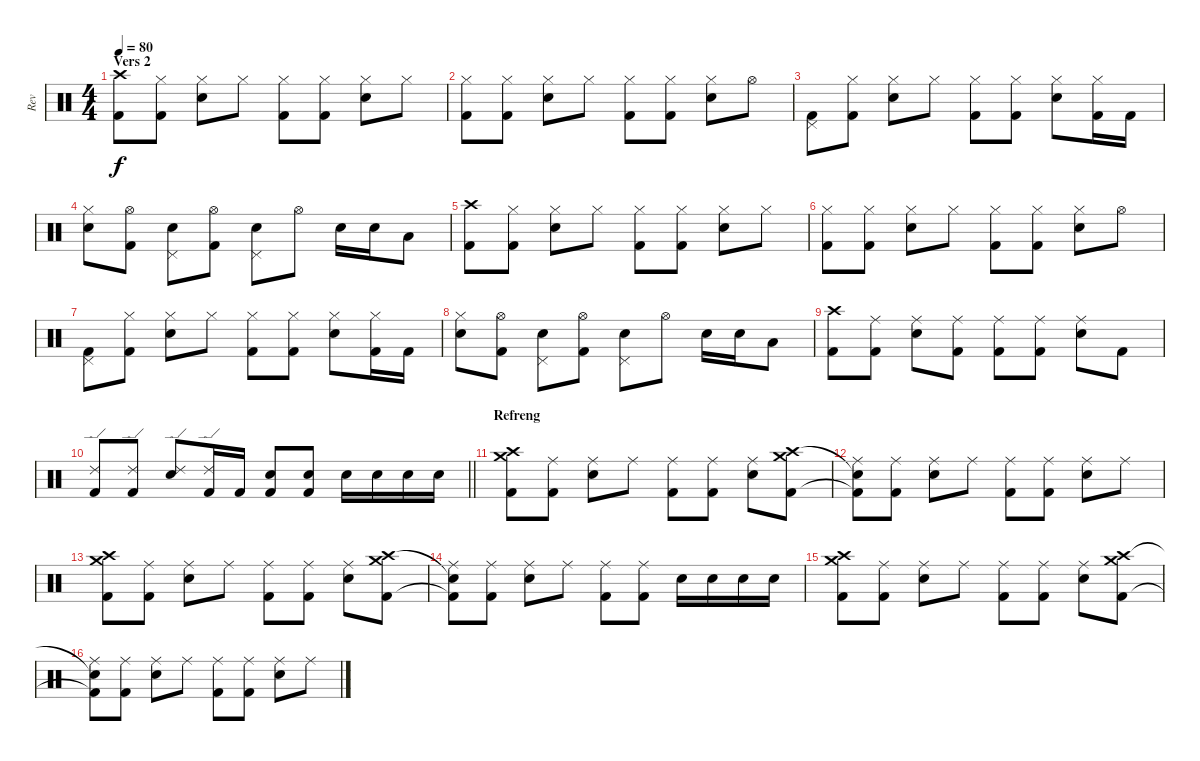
\track ("Rev" "Rev") {instrument percussion}
\staff {score}
\articulation defaults
\ts (4 4)
\section ("" "Vers 2")
\tempo 80
\clef neutral
\ks c
("Crash high (hit)" "Kick (hit) 2").8{dy f} ("Hi-Hat (closed)" "Kick (hit) 2").8 ("Hi-Hat (closed)" "Electric Snare (hit)").8 "Hi-Hat (closed)".8 ("Hi-Hat (closed)" "Kick (hit) 2").8 ("Hi-Hat (closed)" "Kick (hit) 2").8 ("Hi-Hat (closed)" "Electric Snare (hit)").8 "Hi-Hat (closed)".8 |
("Hi-Hat (closed)" "Kick (hit) 2").8 ("Hi-Hat (closed)" "Kick (hit) 2").8 ("Hi-Hat (closed)" "Electric Snare (hit)").8 "Hi-Hat (closed)".8 ("Hi-Hat (closed)" "Kick (hit) 2").8 ("Hi-Hat (closed)" "Kick (hit) 2").8 ("Hi-Hat (closed)" "Electric Snare (hit)").8 "Hi-Hat (open)".8 |
("Pedal Hi-Hat (hit)" "Kick (hit) 2").8 ("Hi-Hat (closed)" "Kick (hit) 2").8 ("Hi-Hat (closed)" "Electric Snare (hit)").8 "Hi-Hat (closed)".8 ("Hi-Hat (closed)" "Kick (hit) 2").8 ("Hi-Hat (closed)" "Kick (hit) 2").8 ("Hi-Hat (closed)" "Electric Snare (hit)").8 ("Hi-Hat (closed)" "Kick (hit) 2").16 "Kick (hit) 2".16 |
("Hi-Hat (closed)" "Electric Snare (hit)").8 ("Hi-Hat (open)" "Kick (hit) 2").8 ("Pedal Hi-Hat (hit)" "Electric Snare (hit)").8 ("Hi-Hat (open)" "Kick (hit) 2").8 ("Pedal Hi-Hat (hit)" "Electric Snare (hit)").8 "Hi-Hat (open)".8 "Electric Snare (hit)".16 "Electric Snare (hit)".16 "Low Tom (hit)".8 |
("Crash high (hit)" "Kick (hit) 2").8 ("Hi-Hat (closed)" "Kick (hit) 2").8 ("Hi-Hat (closed)" "Electric Snare (hit)").8 "Hi-Hat (closed)".8 ("Hi-Hat (closed)" "Kick (hit) 2").8 ("Hi-Hat (closed)" "Kick (hit) 2").8 ("Hi-Hat (closed)" "Electric Snare (hit)").8 "Hi-Hat (closed)".8 |
("Hi-Hat (closed)" "Kick (hit) 2").8 ("Hi-Hat (closed)" "Kick (hit) 2").8 ("Hi-Hat (closed)" "Electric Snare (hit)").8 "Hi-Hat (closed)".8 ("Hi-Hat (closed)" "Kick (hit) 2").8 ("Hi-Hat (closed)" "Kick (hit) 2").8 ("Hi-Hat (closed)" "Electric Snare (hit)").8 "Hi-Hat (open)".8 |
("Pedal Hi-Hat (hit)" "Kick (hit) 2").8 ("Hi-Hat (closed)" "Kick (hit) 2").8 ("Hi-Hat (closed)" "Electric Snare (hit)").8 "Hi-Hat (closed)".8 ("Hi-Hat (closed)" "Kick (hit) 2").8 ("Hi-Hat (closed)" "Kick (hit) 2").8 ("Hi-Hat (closed)" "Electric Snare (hit)").8 ("Hi-Hat (closed)" "Kick (hit) 2").16 "Kick (hit) 2".16 |
("Hi-Hat (closed)" "Electric Snare (hit)").8 ("Hi-Hat (open)" "Kick (hit) 2").8 ("Pedal Hi-Hat (hit)" "Electric Snare (hit)").8 ("Hi-Hat (open)" "Kick (hit) 2").8 ("Pedal Hi-Hat (hit)" "Electric Snare (hit)").8 "Hi-Hat (open)".8 "Electric Snare (hit)".16 "Electric Snare (hit)".16 "Low Tom (hit)".8 |
("Crash high (hit)" "Kick (hit) 2").8 ("Ride (middle)" "Kick (hit) 2").8 ("Ride (middle)" "Electric Snare (hit)").8 ("Ride (middle)" "Kick (hit) 2").8 ("Ride (middle)" "Kick (hit) 2").8 ("Ride (middle)" "Kick (hit) 2").8 ("Ride (middle)" "Electric Snare (hit)").8 "Kick (hit) 2".8 |
\barLineRight lightlight
("Ride (edge) 2" "Kick (hit) 2").8 ("Ride (edge) 2" "Kick (hit) 2").8 ("Ride (edge) 2" "Electric Snare (hit)").8 ("Ride (edge) 2" "Kick (hit) 2").16 "Kick (hit) 2".16 ("Electric Snare (hit)" "Kick (hit) 2").8 ("Electric Snare (hit)" "Kick (hit) 2").8 "Electric Snare (hit)".16 "Electric Snare (hit)".16 "Electric Snare (hit)".16 "Electric Snare (hit)".16 |
\section ("" "Refreng")
("Crash high (hit)" "Crash medium (hit)" "Kick (hit) 2").8 ("Ride (middle)" "Kick (hit) 2").8 ("Ride (middle)" "Electric Snare (hit)").8 "Ride (middle)".8 ("Ride (middle)" "Kick (hit) 2").8 ("Ride (middle)" "Kick (hit) 2").8 ("Ride (middle)" "Electric Snare (hit)").8 ("Crash high (hit)" "Crash medium (hit)" "Kick (hit) 2").8 |
("Snare (hit)"{t} "Ride (middle)" "Kick (hit) 2"{t}).8 ("Ride (middle)" "Kick (hit) 2").8 ("Ride (middle)" "Electric Snare (hit)").8 "Ride (middle)".8 ("Ride (middle)" "Kick (hit) 2").8 ("Ride (middle)" "Kick (hit) 2").8 ("Ride (middle)" "Electric Snare (hit)").8 "Ride (middle)".8 |
("Crash high (hit)" "Crash medium (hit)" "Kick (hit) 2").8 ("Ride (middle)" "Kick (hit) 2").8 ("Ride (middle)" "Electric Snare (hit)").8 "Ride (middle)".8 ("Ride (middle)" "Kick (hit) 2").8 ("Ride (middle)" "Kick (hit) 2").8 ("Ride (middle)" "Electric Snare (hit)").8 ("Crash high (hit)" "Crash medium (hit)" "Kick (hit) 2").8 |
("Snare (hit)"{t} "Ride (middle)" "Kick (hit) 2"{t}).8 ("Ride (middle)" "Kick (hit) 2").8 ("Ride (middle)" "Electric Snare (hit)").8 "Ride (middle)".8 ("Ride (middle)" "Kick (hit) 2").8 ("Ride (middle)" "Kick (hit) 2").8 "Electric Snare (hit)".16 "Electric Snare (hit)".16 "Electric Snare (hit)".16 "Electric Snare (hit)".16 |
("Crash high (hit)" "Crash medium (hit)" "Kick (hit) 2").8 ("Ride (middle)" "Kick (hit) 2").8 ("Ride (middle)" "Electric Snare (hit)").8 "Ride (middle)".8 ("Ride (middle)" "Kick (hit) 2").8 ("Ride (middle)" "Kick (hit) 2").8 ("Ride (middle)" "Electric Snare (hit)").8 ("Crash high (hit)" "Crash medium (hit)" "Kick (hit) 2").8 |
("Snare (hit)"{t} "Ride (middle)" "Kick (hit) 2"{t}).8 ("Ride (middle)" "Kick (hit) 2").8 ("Ride (middle)" "Electric Snare (hit)").8 "Ride (middle)".8 ("Ride (middle)" "Kick (hit) 2").8 ("Ride (middle)" "Kick (hit) 2").8 ("Ride (middle)" "Electric Snare (hit)").8 "Ride (middle)".8
